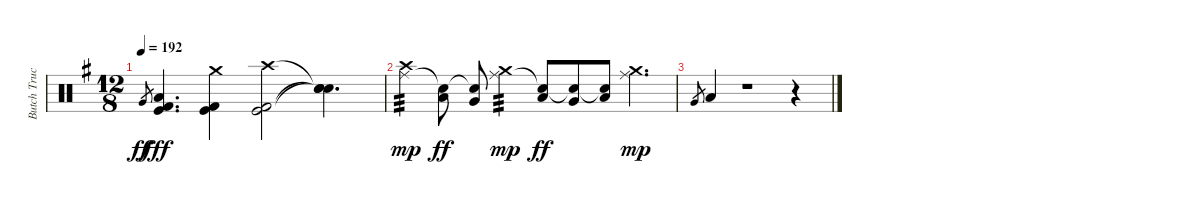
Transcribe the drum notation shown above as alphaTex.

\track ("Butch Trucks, Jaimoe - Drums" "Butch Truc") {instrument percussion}
\staff {score}
\articulation defaults
\ts (12 8)
\tempo 192
\clef neutral
\ks g "Very Low Tom (hit)".8{gr dy ff}
("Low Tom (hit)" "Kick (hit)" "Kick (hit) 2").4{d dy fff} ("Crash medium (hit)" "Kick (hit)" "Kick (hit) 2").4 ("Crash high (hit)" "Kick (hit)" "Kick (hit) 2").2 ("Snare (hit)"{t} "Snare (hit)"{t} "Snare (hit)"{t}).4{d} |
("Ride (middle)" "Crash high (hit)").4{tp 3 dy mp} ("Snare (hit)"{t} "Low Tom (hit)").8{dy ff} ("Snare (hit)"{t} "Very Low Tom (hit)").8 ("Ride (middle)" "Crash medium (hit)").4{tp 3 dy mp} ("Snare (hit)"{t} "Low Tom (hit)").8{dy ff} ("Snare (hit)"{t} "Very Low Tom (hit)").8 ("Snare (hit)"{t} "Low Tom (hit)").8 ("Ride (middle)" "Crash medium (hit)").4{d dy mp} |
"Very Low Tom (hit)".8{gr} "Low Tom (hit)".4 r.1 r.4
